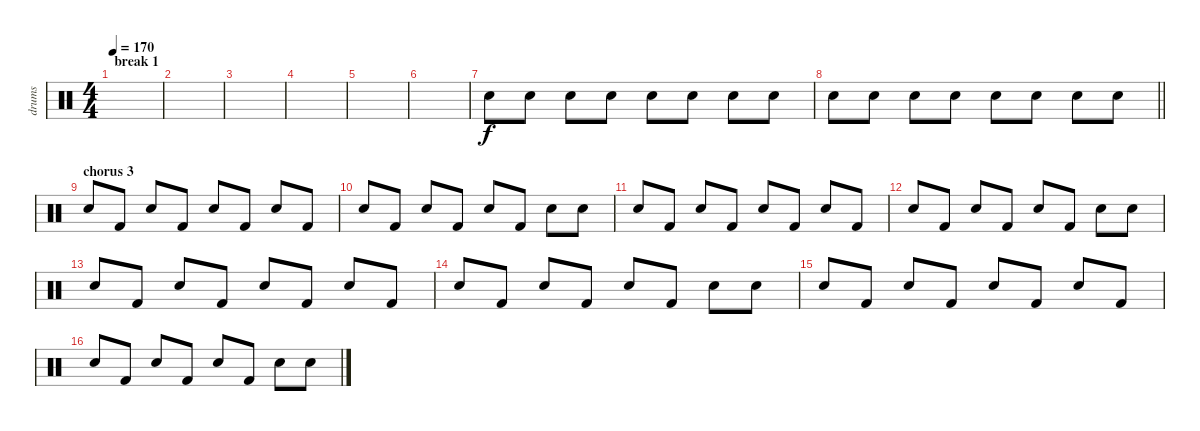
\track ("drums" "drums") {instrument percussion}
\staff {score}
\articulation defaults
\ts (4 4)
\section ("" "break 1")
\tempo 170
\clef neutral
\ks c
|
|
|
|
|
|
"Electric Snare (hit)".8{volume 16} "Electric Snare (hit)".8 "Electric Snare (hit)".8 "Electric Snare (hit)".8 "Electric Snare (hit)".8 "Electric Snare (hit)".8 "Electric Snare (hit)".8 "Electric Snare (hit)".8 |
\barLineRight lightlight "Electric Snare (hit)".8 "Electric Snare (hit)".8 "Electric Snare (hit)".8 "Electric Snare (hit)".8 "Electric Snare (hit)".8 "Electric Snare (hit)".8 "Electric Snare (hit)".8 "Electric Snare (hit)".8
|
\section ("" "chorus 3")
"Electric Snare (hit)".8 "Kick (hit) 2".8 "Electric Snare (hit)".8 "Kick (hit) 2".8 "Electric Snare (hit)".8 "Kick (hit) 2".8 "Electric Snare (hit)".8 "Kick (hit) 2".8 |
"Electric Snare (hit)".8 "Kick (hit) 2".8 "Electric Snare (hit)".8 "Kick (hit) 2".8 "Electric Snare (hit)".8 "Kick (hit) 2".8 "Electric Snare (hit)".8 "Electric Snare (hit)".8 |
"Electric Snare (hit)".8 "Kick (hit) 2".8 "Electric Snare (hit)".8 "Kick (hit) 2".8 "Electric Snare (hit)".8 "Kick (hit) 2".8 "Electric Snare (hit)".8 "Kick (hit) 2".8 |
"Electric Snare (hit)".8 "Kick (hit) 2".8 "Electric Snare (hit)".8 "Kick (hit) 2".8 "Electric Snare (hit)".8 "Kick (hit) 2".8 "Electric Snare (hit)".8 "Electric Snare (hit)".8 |
"Electric Snare (hit)".8 "Kick (hit) 2".8 "Electric Snare (hit)".8 "Kick (hit) 2".8 "Electric Snare (hit)".8 "Kick (hit) 2".8 "Electric Snare (hit)".8 "Kick (hit) 2".8 |
"Electric Snare (hit)".8 "Kick (hit) 2".8 "Electric Snare (hit)".8 "Kick (hit) 2".8 "Electric Snare (hit)".8 "Kick (hit) 2".8 "Electric Snare (hit)".8 "Electric Snare (hit)".8 |
"Electric Snare (hit)".8 "Kick (hit) 2".8 "Electric Snare (hit)".8 "Kick (hit) 2".8 "Electric Snare (hit)".8 "Kick (hit) 2".8 "Electric Snare (hit)".8 "Kick (hit) 2".8 |
"Electric Snare (hit)".8 "Kick (hit) 2".8 "Electric Snare (hit)".8 "Kick (hit) 2".8 "Electric Snare (hit)".8 "Kick (hit) 2".8 "Electric Snare (hit)".8 "Electric Snare (hit)".8
